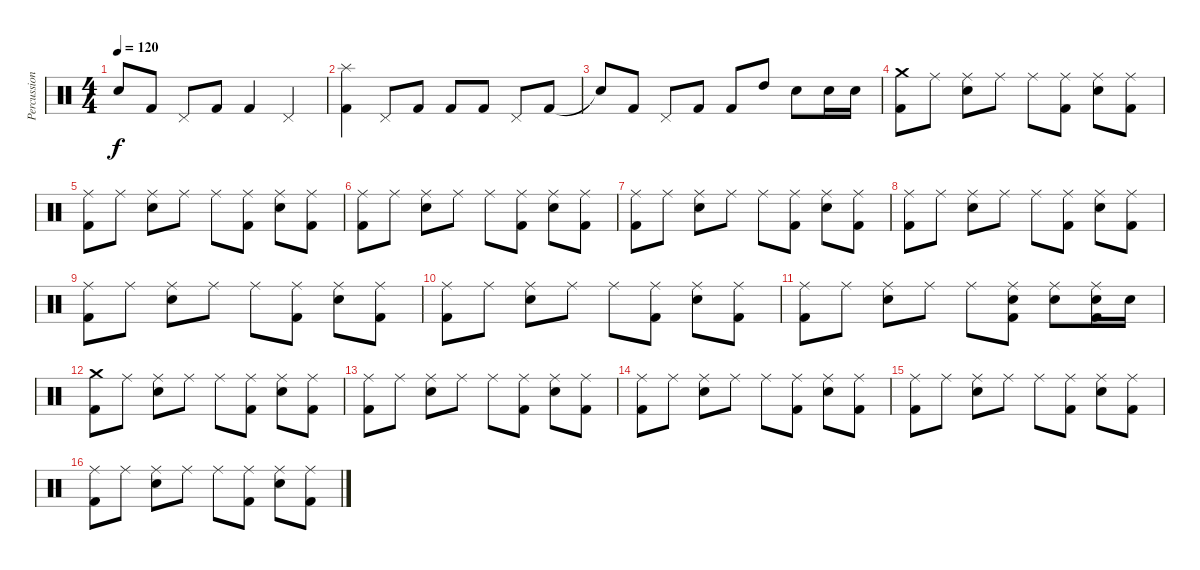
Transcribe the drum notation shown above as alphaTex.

\track ("Percussion" "Percussion") {instrument percussion}
\staff {score}
\articulation defaults
\ts (4 4)
\tempo 120
\clef neutral
\ks c "Snare (hit)"{t}.8{dy f} "Kick (hit) 2".8 "Pedal Hi-Hat (hit)".8 "Kick (hit) 2".8 "Kick (hit) 2".4 "Pedal Hi-Hat (hit)".4
|
("Splash (hit)" "Kick (hit) 2").4 "Pedal Hi-Hat (hit)".8 "Kick (hit) 2".8 "Kick (hit) 2".8 "Kick (hit) 2".8 "Pedal Hi-Hat (hit)".8 "Kick (hit) 2".8 |
"Snare (hit)"{t}.8 "Kick (hit) 2".8 "Pedal Hi-Hat (hit)".8 "Kick (hit) 2".8 "Kick (hit) 2".8 "High Tom (hit)".8 "Snare (hit) 2".8 "Snare (hit) 2".16 "Snare (hit) 2".16 |
("Crash medium (hit)" "Kick (hit) 2").8 "Ride (middle)".8 ("Ride (middle)" "Snare (hit) 2").8 "Ride (middle)".8 "Ride (middle)".8 ("Ride (middle)" "Kick (hit) 2").8 ("Ride (middle)" "Snare (hit) 2").8 ("Ride (middle)" "Kick (hit) 2").8 |
("Ride (middle)" "Kick (hit) 2").8 "Ride (middle)".8 ("Ride (middle)" "Snare (hit) 2").8 "Ride (middle)".8 "Ride (middle)".8 ("Ride (middle)" "Kick (hit) 2").8 ("Ride (middle)" "Snare (hit) 2").8 ("Ride (middle)" "Kick (hit) 2").8 |
("Ride (middle)" "Kick (hit) 2").8 "Ride (middle)".8 ("Ride (middle)" "Snare (hit) 2").8 "Ride (middle)".8 "Ride (middle)".8 ("Ride (middle)" "Kick (hit) 2").8 ("Ride (middle)" "Snare (hit) 2").8 ("Ride (middle)" "Kick (hit) 2").8 |
("Ride (middle)" "Kick (hit) 2").8 "Ride (middle)".8 ("Ride (middle)" "Snare (hit) 2").8 "Ride (middle)".8 "Ride (middle)".8 ("Ride (middle)" "Kick (hit) 2").8 ("Ride (middle)" "Snare (hit) 2").8 ("Ride (middle)" "Kick (hit) 2").8 |
("Ride (middle)" "Kick (hit) 2").8 "Ride (middle)".8 ("Ride (middle)" "Snare (hit) 2").8 "Ride (middle)".8 "Ride (middle)".8 ("Ride (middle)" "Kick (hit) 2").8 ("Ride (middle)" "Snare (hit) 2").8 ("Ride (middle)" "Kick (hit) 2").8 |
("Ride (middle)" "Kick (hit) 2").8 "Ride (middle)".8 ("Ride (middle)" "Snare (hit) 2").8 "Ride (middle)".8 "Ride (middle)".8 ("Ride (middle)" "Kick (hit) 2").8 ("Ride (middle)" "Snare (hit) 2").8 ("Ride (middle)" "Kick (hit) 2").8 |
("Ride (middle)" "Kick (hit) 2").8 "Ride (middle)".8 ("Ride (middle)" "Snare (hit) 2").8 "Ride (middle)".8 "Ride (middle)".8 ("Ride (middle)" "Kick (hit) 2").8 ("Ride (middle)" "Snare (hit) 2").8 ("Ride (middle)" "Kick (hit) 2").8 |
("Ride (middle)" "Kick (hit) 2").8 "Ride (middle)".8 ("Ride (middle)" "Snare (hit) 2").8 "Ride (middle)".8 "Ride (middle)".8 ("Ride (middle)" "Kick (hit) 2" "Snare (hit) 2").8 ("Ride (middle)" "Snare (hit) 2").8 ("Ride (middle)" "Kick (hit) 2" "Snare (hit) 2").16 "Snare (hit) 2".16 |
("Crash medium (hit)" "Kick (hit) 2").8 "Ride (middle)".8 ("Ride (middle)" "Snare (hit) 2").8 "Ride (middle)".8 "Ride (middle)".8 ("Ride (middle)" "Kick (hit) 2").8 ("Ride (middle)" "Snare (hit) 2").8 ("Ride (middle)" "Kick (hit) 2").8 |
("Ride (middle)" "Kick (hit) 2").8 "Ride (middle)".8 ("Ride (middle)" "Snare (hit) 2").8 "Ride (middle)".8 "Ride (middle)".8 ("Ride (middle)" "Kick (hit) 2").8 ("Ride (middle)" "Snare (hit) 2").8 ("Ride (middle)" "Kick (hit) 2").8 |
("Ride (middle)" "Kick (hit) 2").8 "Ride (middle)".8 ("Ride (middle)" "Snare (hit) 2").8 "Ride (middle)".8 "Ride (middle)".8 ("Ride (middle)" "Kick (hit) 2").8 ("Ride (middle)" "Snare (hit) 2").8 ("Ride (middle)" "Kick (hit) 2").8 |
("Ride (middle)" "Kick (hit) 2").8 "Ride (middle)".8 ("Ride (middle)" "Snare (hit) 2").8 "Ride (middle)".8 "Ride (middle)".8 ("Ride (middle)" "Kick (hit) 2").8 ("Ride (middle)" "Snare (hit) 2").8 ("Ride (middle)" "Kick (hit) 2").8 |
("Ride (middle)" "Kick (hit) 2").8 "Ride (middle)".8 ("Ride (middle)" "Snare (hit) 2").8 "Ride (middle)".8 "Ride (middle)".8 ("Ride (middle)" "Kick (hit) 2").8 ("Ride (middle)" "Snare (hit) 2").8 ("Ride (middle)" "Kick (hit) 2").8
